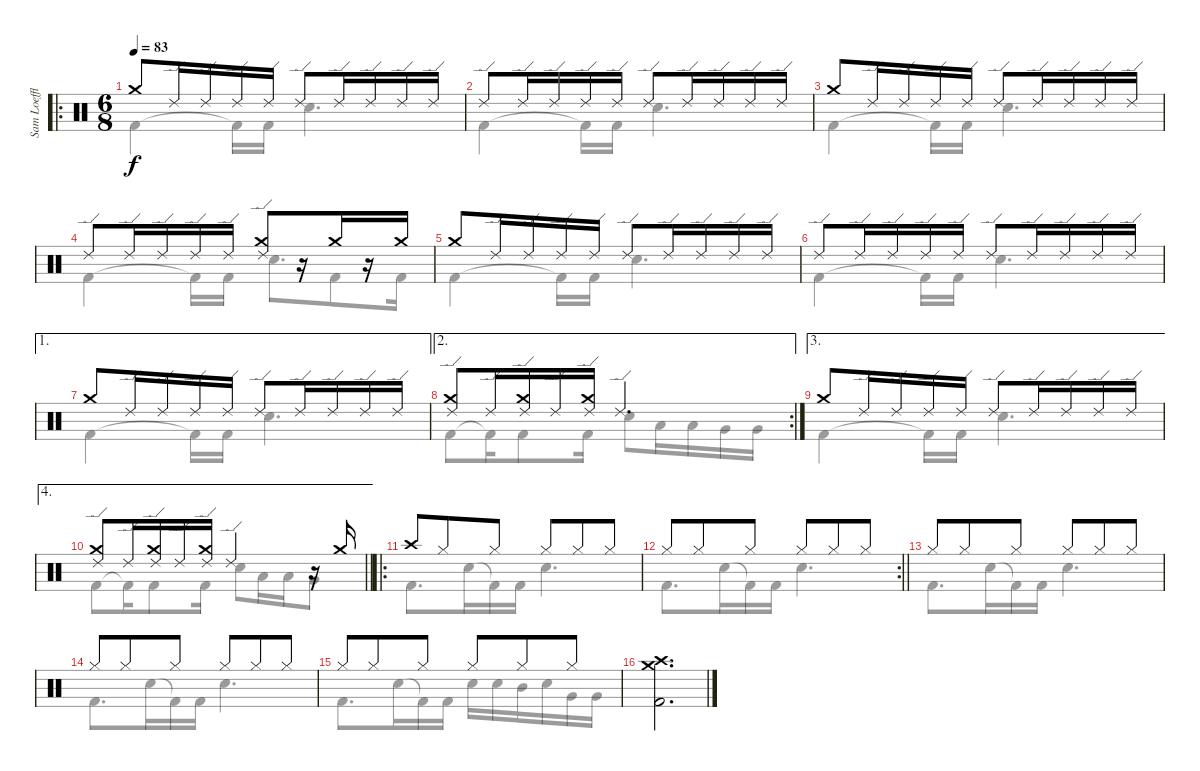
\track ("Sam Loeffler" "Sam Loeffl") {instrument percussion}
\staff {score}
\articulation defaults
\voice
\ro
\ts (6 8)
\tempo 83
\clef neutral
\ks c "Crash medium (hit)".8{dy f} "Ride (edge) 2".16 "Ride (edge) 2".16 "Ride (edge) 2".16 "Ride (edge) 2".16 "Ride (edge) 2".8 "Ride (edge) 2".16 "Ride (edge) 2".16 "Ride (edge) 2".16 "Ride (edge) 2".16
|
"Ride (edge) 2".8 "Ride (edge) 2".16 "Ride (edge) 2".16 "Ride (edge) 2".16 "Ride (edge) 2".16 "Ride (edge) 2".8 "Ride (edge) 2".16 "Ride (edge) 2".16 "Ride (edge) 2".16 "Ride (edge) 2".16 |
"Crash medium (hit)".8 "Ride (edge) 2".16 "Ride (edge) 2".16 "Ride (edge) 2".16 "Ride (edge) 2".16 "Ride (edge) 2".8 "Ride (edge) 2".16 "Ride (edge) 2".16 "Ride (edge) 2".16 "Ride (edge) 2".16 |
"Ride (edge) 2".8 "Ride (edge) 2".16 "Ride (edge) 2".16 "Ride (edge) 2".16 "Ride (edge) 2".16 ("Crash medium (hit)" "Ride (edge) 2").8 r.16 "Crash medium (hit)".16 r.16 "Crash medium (hit)".16 |
"Crash medium (hit)".8 "Ride (edge) 2".16 "Ride (edge) 2".16 "Ride (edge) 2".16 "Ride (edge) 2".16 "Ride (edge) 2".8 "Ride (edge) 2".16 "Ride (edge) 2".16 "Ride (edge) 2".16 "Ride (edge) 2".16 |
"Ride (edge) 2".8 "Ride (edge) 2".16 "Ride (edge) 2".16 "Ride (edge) 2".16 "Ride (edge) 2".16 "Ride (edge) 2".8 "Ride (edge) 2".16 "Ride (edge) 2".16 "Ride (edge) 2".16 "Ride (edge) 2".16 |
\ae 1 "Crash medium (hit)".8 "Ride (edge) 2".16 "Ride (edge) 2".16 "Ride (edge) 2".16 "Ride (edge) 2".16 "Ride (edge) 2".8 "Ride (edge) 2".16 "Ride (edge) 2".16 "Ride (edge) 2".16 "Ride (edge) 2".16
|
\ae 2
\rc 2
("Crash medium (hit)" "Ride (edge) 2").8 "Ride (edge) 2".16 ("Crash medium (hit)" "Ride (edge) 2").16 "Ride (edge) 2".16 ("Crash medium (hit)" "Ride (edge) 2").16 "Ride (edge) 2".4{d} |
\ae 3 "Crash medium (hit)".8 "Ride (edge) 2".16 "Ride (edge) 2".16 "Ride (edge) 2".16 "Ride (edge) 2".16 "Ride (edge) 2".8 "Ride (edge) 2".16 "Ride (edge) 2".16 "Ride (edge) 2".16 "Ride (edge) 2".16
|
\ae 4
\barLineRight lightlight
("Crash medium (hit)" "Ride (edge) 2").8 "Ride (edge) 2".16 ("Crash medium (hit)" "Ride (edge) 2").16 "Ride (edge) 2".16 ("Crash medium (hit)" "Ride (edge) 2").16 "Ride (edge) 2".4 r.16 "Crash medium (hit)".16 |
\ro "Crash high (hit)".8 "Hi-Hat (closed)".8 "Hi-Hat (closed)".8 "Hi-Hat (closed)".8 "Hi-Hat (closed)".8 "Hi-Hat (closed)".8
|
\rc 2
\barLineRight lightlight "Hi-Hat (closed)".8 "Hi-Hat (closed)".8 "Hi-Hat (closed)".8 "Hi-Hat (closed)".8 "Hi-Hat (closed)".8 "Hi-Hat (closed)".8
|
"Hi-Hat (closed)".8 "Hi-Hat (closed)".8 "Hi-Hat (closed)".8 "Hi-Hat (closed)".8 "Hi-Hat (closed)".8 "Hi-Hat (closed)".8 |
"Hi-Hat (closed)".8 "Hi-Hat (closed)".8 "Hi-Hat (closed)".8 "Hi-Hat (closed)".8 "Hi-Hat (closed)".8 "Hi-Hat (closed)".8 |
"Hi-Hat (closed)".8 "Hi-Hat (closed)".8 "Hi-Hat (closed)".8 "Hi-Hat (closed)".8 "Hi-Hat (closed)".8 "Hi-Hat (closed)".8 |
("Crash high (hit)" "Crash medium (hit)" "Kick (hit) 2").2{d}
\voice
\clef neutral
\ottava regular
\simile none
\ks c "Kick (hit) 2".4{dy f} "Kick (hit) 2"{t}.16 "Kick (hit) 2".16 "Electric Snare (hit)".4{d}
|
"Kick (hit) 2".4 "Kick (hit) 2"{t}.16 "Kick (hit) 2".16 "Electric Snare (hit)".4{d} |
"Kick (hit) 2".4 "Kick (hit) 2"{t}.16 "Kick (hit) 2".16 "Electric Snare (hit)".4{d} |
"Kick (hit) 2".4 "Kick (hit) 2"{t}.16 "Kick (hit) 2".16 "Electric Snare (hit)".8{d} "Kick (hit) 2".8 "Kick (hit) 2".16 |
"Kick (hit) 2".4 "Kick (hit) 2"{t}.16 "Kick (hit) 2".16 "Electric Snare (hit)".4{d} |
"Kick (hit) 2".4 "Kick (hit) 2"{t}.16 "Kick (hit) 2".16 "Electric Snare (hit)".4{d} |
"Kick (hit) 2".4 "Kick (hit) 2"{t}.16 "Kick (hit) 2".16 "Electric Snare (hit)".4{d} |
"Kick (hit) 2".8 "Kick (hit) 2"{t}.16 "Kick (hit) 2".8 "Kick (hit) 2".16 "Electric Snare (hit)".8 "Low Tom (hit)".16 "Low Tom (hit)".16 "Very Low Tom (hit)".16 "Very Low Tom (hit)".16 |
"Kick (hit) 2".4 "Kick (hit) 2"{t}.16 "Kick (hit) 2".16 "Electric Snare (hit)".4{d} |
\barLineRight lightlight "Kick (hit) 2".8 "Kick (hit) 2"{t}.16 "Kick (hit) 2".8 "Kick (hit) 2".16 "Electric Snare (hit)".8 "Low Tom (hit)".16 "Low Tom (hit)".16 "Very Low Tom (hit)".8
|
"Kick (hit) 2".8{d} "Electric Snare (hit)".16 "Kick (hit) 2"{t}.16 "Kick (hit) 2".16 "Electric Snare (hit)".4{d} |
\barLineRight lightlight "Kick (hit) 2".8{d} "Electric Snare (hit)".16 "Kick (hit) 2"{t}.16 "Kick (hit) 2".16 "Electric Snare (hit)".4{d}
|
"Kick (hit) 2".8{d} "Electric Snare (hit)".16 "Kick (hit) 2"{t}.16 "Kick (hit) 2".16 "Electric Snare (hit)".4{d} |
"Kick (hit) 2".8{d} "Electric Snare (hit)".16 "Kick (hit) 2"{t}.16 "Kick (hit) 2".16 "Electric Snare (hit)".4{d} |
"Kick (hit) 2".8{d} "Electric Snare (hit)".16 "Kick (hit) 2"{t}.16 "Kick (hit) 2".16 "Electric Snare (hit)".16 "Electric Snare (hit)".16 "Mid Tom (hit)".16 "Electric Snare (hit)".16 "Very Low Tom (hit)".16 "Very Low Tom (hit)".16 |
